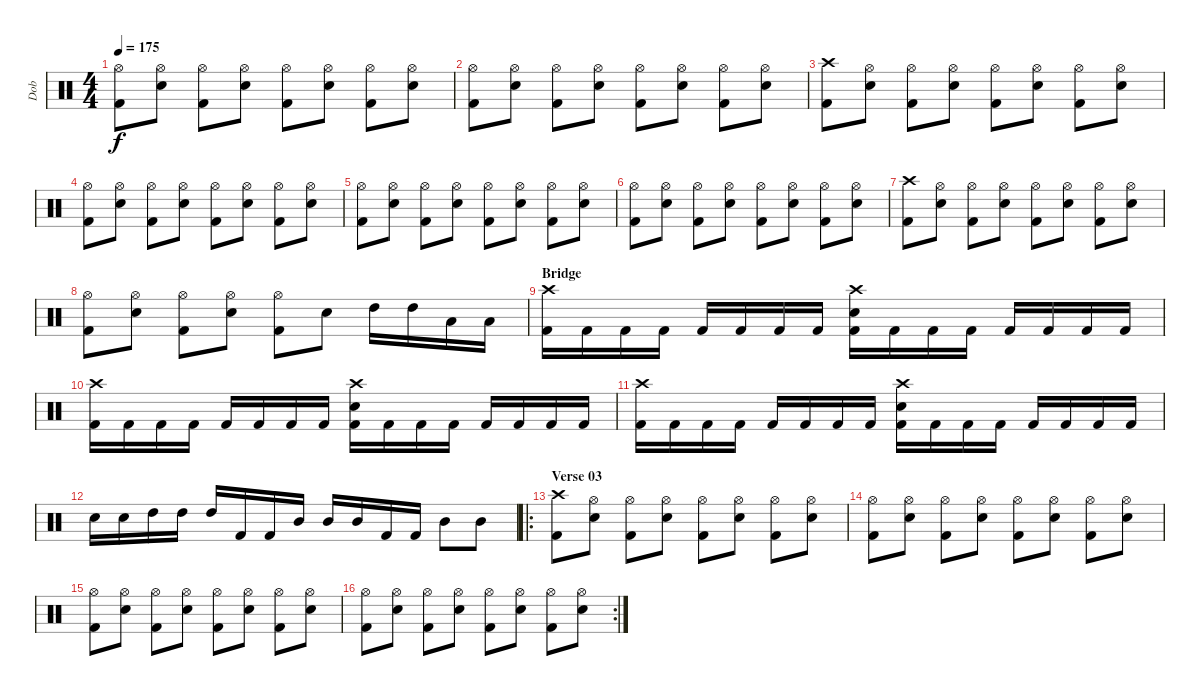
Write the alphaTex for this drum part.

\track ("Dob" "Dob") {instrument percussion}
\staff {score}
\articulation defaults
\ts (4 4)
\tempo 175
\clef neutral
\ks c
("Hi-Hat (open)" "Kick (hit) 2").8{dy f} ("Hi-Hat (open)" "Snare (hit) 2").8 ("Hi-Hat (open)" "Kick (hit) 2").8 ("Hi-Hat (open)" "Snare (hit) 2").8 ("Hi-Hat (open)" "Kick (hit) 2").8 ("Hi-Hat (open)" "Snare (hit) 2").8 ("Hi-Hat (open)" "Kick (hit) 2").8 ("Hi-Hat (open)" "Snare (hit) 2").8 |
("Hi-Hat (open)" "Kick (hit) 2").8 ("Hi-Hat (open)" "Snare (hit) 2").8 ("Hi-Hat (open)" "Kick (hit) 2").8 ("Hi-Hat (open)" "Snare (hit) 2").8 ("Hi-Hat (open)" "Kick (hit) 2").8 ("Hi-Hat (open)" "Snare (hit) 2").8 ("Hi-Hat (open)" "Kick (hit) 2").8 ("Hi-Hat (open)" "Snare (hit) 2").8 |
("Crash high (hit)" "Kick (hit) 2").8 ("Hi-Hat (open)" "Snare (hit) 2").8 ("Hi-Hat (open)" "Kick (hit) 2").8 ("Hi-Hat (open)" "Snare (hit) 2").8 ("Hi-Hat (open)" "Kick (hit) 2").8 ("Hi-Hat (open)" "Snare (hit) 2").8 ("Hi-Hat (open)" "Kick (hit) 2").8 ("Hi-Hat (open)" "Snare (hit) 2").8 |
("Hi-Hat (open)" "Kick (hit) 2").8 ("Hi-Hat (open)" "Snare (hit) 2").8 ("Hi-Hat (open)" "Kick (hit) 2").8 ("Hi-Hat (open)" "Snare (hit) 2").8 ("Hi-Hat (open)" "Kick (hit) 2").8 ("Hi-Hat (open)" "Snare (hit) 2").8 ("Hi-Hat (open)" "Kick (hit) 2").8 ("Hi-Hat (open)" "Snare (hit) 2").8 |
("Hi-Hat (open)" "Kick (hit) 2").8 ("Hi-Hat (open)" "Snare (hit) 2").8 ("Hi-Hat (open)" "Kick (hit) 2").8 ("Hi-Hat (open)" "Snare (hit) 2").8 ("Hi-Hat (open)" "Kick (hit) 2").8 ("Hi-Hat (open)" "Snare (hit) 2").8 ("Hi-Hat (open)" "Kick (hit) 2").8 ("Hi-Hat (open)" "Snare (hit) 2").8 |
("Hi-Hat (open)" "Kick (hit) 2").8 ("Hi-Hat (open)" "Snare (hit) 2").8 ("Hi-Hat (open)" "Kick (hit) 2").8 ("Hi-Hat (open)" "Snare (hit) 2").8 ("Hi-Hat (open)" "Kick (hit) 2").8 ("Hi-Hat (open)" "Snare (hit) 2").8 ("Hi-Hat (open)" "Kick (hit) 2").8 ("Hi-Hat (open)" "Snare (hit) 2").8 |
("Crash high (hit)" "Kick (hit) 2").8 ("Hi-Hat (open)" "Snare (hit) 2").8 ("Hi-Hat (open)" "Kick (hit) 2").8 ("Hi-Hat (open)" "Snare (hit) 2").8 ("Hi-Hat (open)" "Kick (hit) 2").8 ("Hi-Hat (open)" "Snare (hit) 2").8 ("Hi-Hat (open)" "Kick (hit) 2").8 ("Hi-Hat (open)" "Snare (hit) 2").8 |
("Hi-Hat (open)" "Kick (hit) 2").8 ("Hi-Hat (open)" "Snare (hit) 2").8 ("Hi-Hat (open)" "Kick (hit) 2").8 ("Hi-Hat (open)" "Snare (hit) 2").8 ("Hi-Hat (open)" "Kick (hit) 2").8 "Snare (hit) 2".8 "High Tom (hit)".16 "High Tom (hit)".16 "Low Tom (hit)".16 "Low Tom (hit)".16 |
\section ("" "Bridge")
("Crash high (hit)" "Kick (hit) 2").16 "Kick (hit) 2".16 "Kick (hit) 2".16 "Kick (hit) 2".16 "Kick (hit) 2".16 "Kick (hit) 2".16 "Kick (hit) 2".16 "Kick (hit) 2".16 ("Crash high (hit)" "Snare (hit) 2" "Kick (hit) 2").16 "Kick (hit) 2".16 "Kick (hit) 2".16 "Kick (hit) 2".16 "Kick (hit) 2".16 "Kick (hit) 2".16 "Kick (hit) 2".16 "Kick (hit) 2".16 |
("Crash high (hit)" "Kick (hit) 2").16 "Kick (hit) 2".16 "Kick (hit) 2".16 "Kick (hit) 2".16 "Kick (hit) 2".16 "Kick (hit) 2".16 "Kick (hit) 2".16 "Kick (hit) 2".16 ("Crash high (hit)" "Snare (hit) 2" "Kick (hit) 2").16 "Kick (hit) 2".16 "Kick (hit) 2".16 "Kick (hit) 2".16 "Kick (hit) 2".16 "Kick (hit) 2".16 "Kick (hit) 2".16 "Kick (hit) 2".16 |
("Crash high (hit)" "Kick (hit) 2").16 "Kick (hit) 2".16 "Kick (hit) 2".16 "Kick (hit) 2".16 "Kick (hit) 2".16 "Kick (hit) 2".16 "Kick (hit) 2".16 "Kick (hit) 2".16 ("Crash high (hit)" "Snare (hit) 2" "Kick (hit) 2").16 "Kick (hit) 2".16 "Kick (hit) 2".16 "Kick (hit) 2".16 "Kick (hit) 2".16 "Kick (hit) 2".16 "Kick (hit) 2".16 "Kick (hit) 2".16 |
"Snare (hit) 2".16 "Snare (hit) 2".16 "High Tom (hit)".16 "High Tom (hit)".16 "High Tom (hit)".16 "Kick (hit) 2".16 "Kick (hit) 2".16 "Mid Tom (hit)".16 "Mid Tom (hit)".16 "Mid Tom (hit)".16 "Kick (hit) 2".16 "Kick (hit) 2".16 "Mid Tom (hit)".8 "Mid Tom (hit)".8 |
\ro
\section ("" "Verse 03")
("Crash high (hit)" "Kick (hit) 2").8 ("Hi-Hat (open)" "Snare (hit) 2").8 ("Hi-Hat (open)" "Kick (hit) 2").8 ("Hi-Hat (open)" "Snare (hit) 2").8 ("Hi-Hat (open)" "Kick (hit) 2").8 ("Hi-Hat (open)" "Snare (hit) 2").8 ("Hi-Hat (open)" "Kick (hit) 2").8 ("Hi-Hat (open)" "Snare (hit) 2").8 |
("Hi-Hat (open)" "Kick (hit) 2").8 ("Hi-Hat (open)" "Snare (hit) 2").8 ("Hi-Hat (open)" "Kick (hit) 2").8 ("Hi-Hat (open)" "Snare (hit) 2").8 ("Hi-Hat (open)" "Kick (hit) 2").8 ("Hi-Hat (open)" "Snare (hit) 2").8 ("Hi-Hat (open)" "Kick (hit) 2").8 ("Hi-Hat (open)" "Snare (hit) 2").8 |
("Hi-Hat (open)" "Kick (hit) 2").8 ("Hi-Hat (open)" "Snare (hit) 2").8 ("Hi-Hat (open)" "Kick (hit) 2").8 ("Hi-Hat (open)" "Snare (hit) 2").8 ("Hi-Hat (open)" "Kick (hit) 2").8 ("Hi-Hat (open)" "Snare (hit) 2").8 ("Hi-Hat (open)" "Kick (hit) 2").8 ("Hi-Hat (open)" "Snare (hit) 2").8 |
\rc 2
("Hi-Hat (open)" "Kick (hit) 2").8 ("Hi-Hat (open)" "Snare (hit) 2").8 ("Hi-Hat (open)" "Kick (hit) 2").8 ("Hi-Hat (open)" "Snare (hit) 2").8 ("Hi-Hat (open)" "Kick (hit) 2").8 ("Hi-Hat (open)" "Snare (hit) 2").8 ("Hi-Hat (open)" "Kick (hit) 2").8 ("Hi-Hat (open)" "Snare (hit) 2").8
